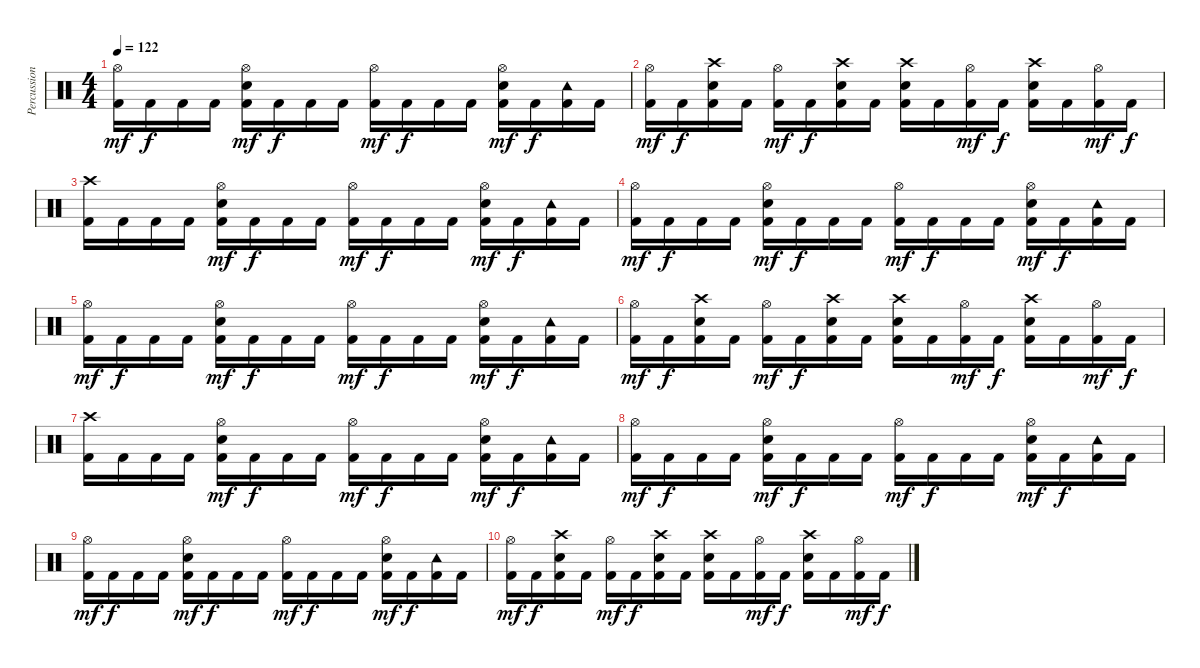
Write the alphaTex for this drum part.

\track ("Percussion" "Percussion") {instrument percussion}
\staff {score}
\articulation defaults
\ts (4 4)
\tempo 122
\clef neutral
\ks c
("Hi-Hat (open)" "Kick (hit) 2").16{dy mf} "Kick (hit) 2".16{dy f} "Kick (hit) 2".16 "Kick (hit) 2".16 ("Hi-Hat (open)" "Electric Snare (hit)" "Kick (hit) 2").16{dy mf} "Kick (hit) 2".16{dy f} "Kick (hit) 2".16 "Kick (hit) 2".16 ("Hi-Hat (open)" "Kick (hit) 2").16{dy mf} "Kick (hit) 2".16{dy f} "Kick (hit) 2".16 "Kick (hit) 2".16 ("Hi-Hat (open)" "Electric Snare (hit)" "Kick (hit) 2").16{dy mf} "Kick (hit) 2".16{dy f} ("Tambourine (hit)" "Kick (hit) 2").16 "Kick (hit) 2".16 |
("Hi-Hat (open)" "Kick (hit) 2").16{dy mf} "Kick (hit) 2".16{dy f} ("Crash high (hit)" "Electric Snare (hit)" "Kick (hit) 2").16 "Kick (hit) 2".16 ("Hi-Hat (open)" "Kick (hit) 2").16{dy mf} "Kick (hit) 2".16{dy f} ("Crash high (hit)" "Electric Snare (hit)" "Kick (hit) 2").16 "Kick (hit) 2".16 ("Crash high (hit)" "Electric Snare (hit)" "Kick (hit) 2").16 "Kick (hit) 2".16 ("Hi-Hat (open)" "Kick (hit) 2").16{dy mf} "Kick (hit) 2".16{dy f} ("Crash high (hit)" "Electric Snare (hit)" "Kick (hit) 2").16 "Kick (hit) 2".16 ("Hi-Hat (open)" "Kick (hit) 2").16{dy mf} "Kick (hit) 2".16{dy f} |
("Crash high (hit)" "Kick (hit) 2").16 "Kick (hit) 2".16 "Kick (hit) 2".16 "Kick (hit) 2".16 ("Hi-Hat (open)" "Electric Snare (hit)" "Kick (hit) 2").16{dy mf} "Kick (hit) 2".16{dy f} "Kick (hit) 2".16 "Kick (hit) 2".16 ("Hi-Hat (open)" "Kick (hit) 2").16{dy mf} "Kick (hit) 2".16{dy f} "Kick (hit) 2".16 "Kick (hit) 2".16 ("Hi-Hat (open)" "Electric Snare (hit)" "Kick (hit) 2").16{dy mf} "Kick (hit) 2".16{dy f} ("Tambourine (hit)" "Kick (hit) 2").16 "Kick (hit) 2".16 |
("Hi-Hat (open)" "Kick (hit) 2").16{dy mf} "Kick (hit) 2".16{dy f} "Kick (hit) 2".16 "Kick (hit) 2".16 ("Hi-Hat (open)" "Electric Snare (hit)" "Kick (hit) 2").16{dy mf} "Kick (hit) 2".16{dy f} "Kick (hit) 2".16 "Kick (hit) 2".16 ("Hi-Hat (open)" "Kick (hit) 2").16{dy mf} "Kick (hit) 2".16{dy f} "Kick (hit) 2".16 "Kick (hit) 2".16 ("Hi-Hat (open)" "Electric Snare (hit)" "Kick (hit) 2").16{dy mf} "Kick (hit) 2".16{dy f} ("Tambourine (hit)" "Kick (hit) 2").16 "Kick (hit) 2".16 |
("Hi-Hat (open)" "Kick (hit) 2").16{dy mf} "Kick (hit) 2".16{dy f} "Kick (hit) 2".16 "Kick (hit) 2".16 ("Hi-Hat (open)" "Electric Snare (hit)" "Kick (hit) 2").16{dy mf} "Kick (hit) 2".16{dy f} "Kick (hit) 2".16 "Kick (hit) 2".16 ("Hi-Hat (open)" "Kick (hit) 2").16{dy mf} "Kick (hit) 2".16{dy f} "Kick (hit) 2".16 "Kick (hit) 2".16 ("Hi-Hat (open)" "Electric Snare (hit)" "Kick (hit) 2").16{dy mf} "Kick (hit) 2".16{dy f} ("Tambourine (hit)" "Kick (hit) 2").16 "Kick (hit) 2".16 |
("Hi-Hat (open)" "Kick (hit) 2").16{dy mf} "Kick (hit) 2".16{dy f} ("Crash high (hit)" "Electric Snare (hit)" "Kick (hit) 2").16 "Kick (hit) 2".16 ("Hi-Hat (open)" "Kick (hit) 2").16{dy mf} "Kick (hit) 2".16{dy f} ("Crash high (hit)" "Electric Snare (hit)" "Kick (hit) 2").16 "Kick (hit) 2".16 ("Crash high (hit)" "Electric Snare (hit)" "Kick (hit) 2").16 "Kick (hit) 2".16 ("Hi-Hat (open)" "Kick (hit) 2").16{dy mf} "Kick (hit) 2".16{dy f} ("Crash high (hit)" "Electric Snare (hit)" "Kick (hit) 2").16 "Kick (hit) 2".16 ("Hi-Hat (open)" "Kick (hit) 2").16{dy mf} "Kick (hit) 2".16{dy f} |
("Crash high (hit)" "Kick (hit) 2").16 "Kick (hit) 2".16 "Kick (hit) 2".16 "Kick (hit) 2".16 ("Hi-Hat (open)" "Electric Snare (hit)" "Kick (hit) 2").16{dy mf} "Kick (hit) 2".16{dy f} "Kick (hit) 2".16 "Kick (hit) 2".16 ("Hi-Hat (open)" "Kick (hit) 2").16{dy mf} "Kick (hit) 2".16{dy f} "Kick (hit) 2".16 "Kick (hit) 2".16 ("Hi-Hat (open)" "Electric Snare (hit)" "Kick (hit) 2").16{dy mf} "Kick (hit) 2".16{dy f} ("Tambourine (hit)" "Kick (hit) 2").16 "Kick (hit) 2".16 |
("Hi-Hat (open)" "Kick (hit) 2").16{dy mf} "Kick (hit) 2".16{dy f} "Kick (hit) 2".16 "Kick (hit) 2".16 ("Hi-Hat (open)" "Electric Snare (hit)" "Kick (hit) 2").16{dy mf} "Kick (hit) 2".16{dy f} "Kick (hit) 2".16 "Kick (hit) 2".16 ("Hi-Hat (open)" "Kick (hit) 2").16{dy mf} "Kick (hit) 2".16{dy f} "Kick (hit) 2".16 "Kick (hit) 2".16 ("Hi-Hat (open)" "Electric Snare (hit)" "Kick (hit) 2").16{dy mf} "Kick (hit) 2".16{dy f} ("Tambourine (hit)" "Kick (hit) 2").16 "Kick (hit) 2".16 |
("Hi-Hat (open)" "Kick (hit) 2").16{dy mf} "Kick (hit) 2".16{dy f} "Kick (hit) 2".16 "Kick (hit) 2".16 ("Hi-Hat (open)" "Electric Snare (hit)" "Kick (hit) 2").16{dy mf} "Kick (hit) 2".16{dy f} "Kick (hit) 2".16 "Kick (hit) 2".16 ("Hi-Hat (open)" "Kick (hit) 2").16{dy mf} "Kick (hit) 2".16{dy f} "Kick (hit) 2".16 "Kick (hit) 2".16 ("Hi-Hat (open)" "Electric Snare (hit)" "Kick (hit) 2").16{dy mf} "Kick (hit) 2".16{dy f} ("Tambourine (hit)" "Kick (hit) 2").16 "Kick (hit) 2".16 |
("Hi-Hat (open)" "Kick (hit) 2").16{dy mf} "Kick (hit) 2".16{dy f} ("Crash high (hit)" "Electric Snare (hit)" "Kick (hit) 2").16 "Kick (hit) 2".16 ("Hi-Hat (open)" "Kick (hit) 2").16{dy mf} "Kick (hit) 2".16{dy f} ("Crash high (hit)" "Electric Snare (hit)" "Kick (hit) 2").16 "Kick (hit) 2".16 ("Crash high (hit)" "Electric Snare (hit)" "Kick (hit) 2").16 "Kick (hit) 2".16 ("Hi-Hat (open)" "Kick (hit) 2").16{dy mf} "Kick (hit) 2".16{dy f} ("Crash high (hit)" "Electric Snare (hit)" "Kick (hit) 2").16 "Kick (hit) 2".16 ("Hi-Hat (open)" "Kick (hit) 2").16{dy mf} "Kick (hit) 2".16{dy f}
